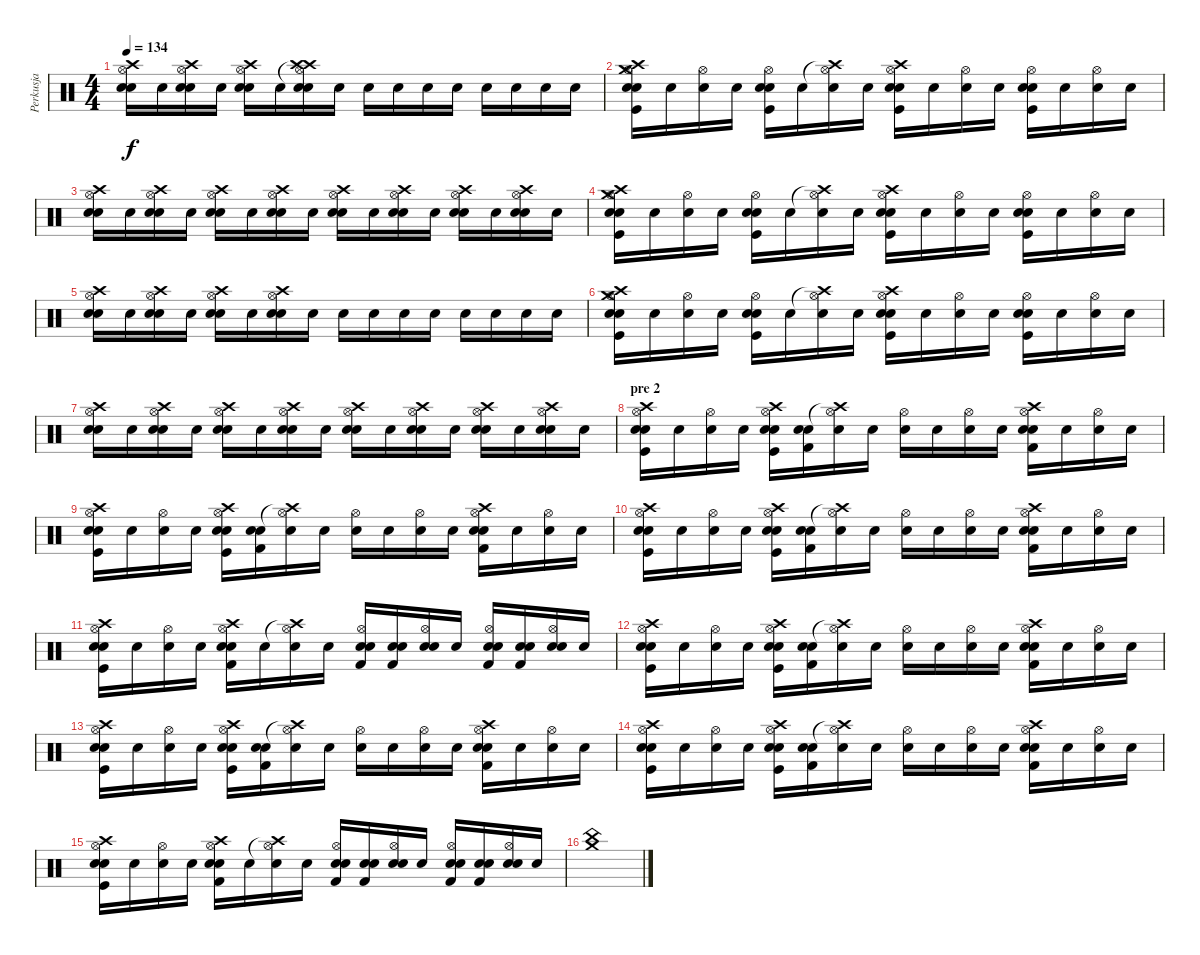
\track ("Perkusja" "Perkusja") {instrument percussion}
\staff {score}
\articulation defaults
\ts (4 4)
\tempo 134
\clef neutral
\ks c
("Crash high (hit)" "Electric Snare (hit)" "Hi-Hat (open)" "Snare (hit)").16{dy f} "Snare (hit)".16 ("Crash high (hit)" "Electric Snare (hit)" "Hi-Hat (open)" "Snare (hit)").16 "Snare (hit)".16 ("Crash high (hit)" "Electric Snare (hit)" "Hi-Hat (open)" "Snare (hit)").16 "Snare (hit)".16 ("Crash high (hit)"{t} "Crash high (hit)" "Electric Snare (hit)" "Hi-Hat (open)" "Snare (hit)").16 "Snare (hit)".16 "Snare (hit)".16 "Snare (hit)".16 "Snare (hit)".16 "Snare (hit)".16 "Snare (hit)".16 "Snare (hit)".16 "Snare (hit)".16 "Snare (hit)".16 |
("Crash high (hit)" "Crash medium (hit)" "Electric Snare (hit)" "Kick (hit)" "Hi-Hat (open)" "Snare (hit)").16 "Snare (hit)".16 ("Hi-Hat (open)" "Snare (hit)").16 "Snare (hit)".16 ("Electric Snare (hit)" "Kick (hit)" "Hi-Hat (open)" "Snare (hit)").16 "Snare (hit)".16 ("Crash high (hit)"{t} "Hi-Hat (open)" "Snare (hit)").16 "Snare (hit)".16 ("Crash high (hit)" "Electric Snare (hit)" "Kick (hit)" "Hi-Hat (open)" "Snare (hit)").16 "Snare (hit)".16 ("Hi-Hat (open)" "Snare (hit)").16 "Snare (hit)".16 ("Electric Snare (hit)" "Kick (hit)" "Hi-Hat (open)" "Snare (hit)").16 "Snare (hit)".16 ("Hi-Hat (open)" "Snare (hit)").16 "Snare (hit)".16 |
("Crash high (hit)" "Electric Snare (hit)" "Hi-Hat (open)" "Snare (hit)").16 "Snare (hit)".16 ("Crash high (hit)" "Electric Snare (hit)" "Hi-Hat (open)" "Snare (hit)").16 "Snare (hit)".16 ("Crash high (hit)" "Electric Snare (hit)" "Hi-Hat (open)" "Snare (hit)").16 "Snare (hit)".16 ("Crash high (hit)" "Electric Snare (hit)" "Hi-Hat (open)" "Snare (hit)").16 "Snare (hit)".16 ("Crash high (hit)" "Electric Snare (hit)" "Hi-Hat (open)" "Snare (hit)").16 "Snare (hit)".16 ("Crash high (hit)" "Electric Snare (hit)" "Hi-Hat (open)" "Snare (hit)").16 "Snare (hit)".16 ("Crash high (hit)" "Electric Snare (hit)" "Hi-Hat (open)" "Snare (hit)").16 "Snare (hit)".16 ("Crash high (hit)" "Electric Snare (hit)" "Hi-Hat (open)" "Snare (hit)").16 "Snare (hit)".16 |
("Crash high (hit)" "Crash medium (hit)" "Electric Snare (hit)" "Kick (hit)" "Hi-Hat (open)" "Snare (hit)").16 "Snare (hit)".16 ("Hi-Hat (open)" "Snare (hit)").16 "Snare (hit)".16 ("Electric Snare (hit)" "Kick (hit)" "Hi-Hat (open)" "Snare (hit)").16 "Snare (hit)".16 ("Crash high (hit)"{t} "Hi-Hat (open)" "Snare (hit)").16 "Snare (hit)".16 ("Crash high (hit)" "Electric Snare (hit)" "Kick (hit)" "Hi-Hat (open)" "Snare (hit)").16 "Snare (hit)".16 ("Hi-Hat (open)" "Snare (hit)").16 "Snare (hit)".16 ("Electric Snare (hit)" "Kick (hit)" "Hi-Hat (open)" "Snare (hit)").16 "Snare (hit)".16 ("Hi-Hat (open)" "Snare (hit)").16 "Snare (hit)".16 |
("Crash high (hit)" "Electric Snare (hit)" "Hi-Hat (open)" "Snare (hit)").16 "Snare (hit)".16 ("Crash high (hit)" "Electric Snare (hit)" "Hi-Hat (open)" "Snare (hit)").16 "Snare (hit)".16 ("Crash high (hit)" "Electric Snare (hit)" "Hi-Hat (open)" "Snare (hit)").16 "Snare (hit)".16 ("Crash high (hit)" "Electric Snare (hit)" "Hi-Hat (open)" "Snare (hit)").16 "Snare (hit)".16 "Snare (hit)".16 "Snare (hit)".16 "Snare (hit)".16 "Snare (hit)".16 "Snare (hit)".16 "Snare (hit)".16 "Snare (hit)".16 "Snare (hit)".16 |
("Crash high (hit)" "Crash medium (hit)" "Electric Snare (hit)" "Kick (hit)" "Hi-Hat (open)" "Snare (hit)").16 "Snare (hit)".16 ("Hi-Hat (open)" "Snare (hit)").16 "Snare (hit)".16 ("Electric Snare (hit)" "Kick (hit)" "Hi-Hat (open)" "Snare (hit)").16 "Snare (hit)".16 ("Crash high (hit)"{t} "Hi-Hat (open)" "Snare (hit)").16 "Snare (hit)".16 ("Crash high (hit)" "Electric Snare (hit)" "Kick (hit)" "Hi-Hat (open)" "Snare (hit)").16 "Snare (hit)".16 ("Hi-Hat (open)" "Snare (hit)").16 "Snare (hit)".16 ("Electric Snare (hit)" "Kick (hit)" "Hi-Hat (open)" "Snare (hit)").16 "Snare (hit)".16 ("Hi-Hat (open)" "Snare (hit)").16 "Snare (hit)".16 |
("Crash high (hit)" "Electric Snare (hit)" "Hi-Hat (open)" "Snare (hit)").16 "Snare (hit)".16 ("Crash high (hit)" "Electric Snare (hit)" "Hi-Hat (open)" "Snare (hit)").16 "Snare (hit)".16 ("Crash high (hit)" "Electric Snare (hit)" "Hi-Hat (open)" "Snare (hit)").16 "Snare (hit)".16 ("Crash high (hit)" "Electric Snare (hit)" "Hi-Hat (open)" "Snare (hit)").16 "Snare (hit)".16 ("Crash high (hit)" "Electric Snare (hit)" "Hi-Hat (open)" "Snare (hit)").16 "Snare (hit)".16 ("Crash high (hit)" "Electric Snare (hit)" "Hi-Hat (open)" "Snare (hit)").16 "Snare (hit)".16 ("Crash high (hit)" "Electric Snare (hit)" "Hi-Hat (open)" "Snare (hit)").16 "Snare (hit)".16 ("Crash high (hit)" "Electric Snare (hit)" "Hi-Hat (open)" "Snare (hit)").16 "Snare (hit)".16 |
\section ("" "pre 2")
("Crash high (hit)" "Electric Snare (hit)" "Kick (hit)" "Hi-Hat (open)" "Snare (hit)").16 "Snare (hit)".16 ("Hi-Hat (open)" "Snare (hit)").16 "Snare (hit)".16 ("Crash high (hit)" "Electric Snare (hit)" "Kick (hit)" "Hi-Hat (open)" "Snare (hit)").16 ("Electric Snare (hit)" "Kick (hit) 2" "Snare (hit)").16 ("Crash high (hit)"{t} "Hi-Hat (open)" "Snare (hit)").16 "Snare (hit)".16 ("Hi-Hat (open)" "Snare (hit)").16 "Snare (hit)".16 ("Hi-Hat (open)" "Snare (hit)").16 "Snare (hit)".16 ("Crash high (hit)" "Electric Snare (hit)" "Kick (hit) 2" "Hi-Hat (open)" "Snare (hit)").16 "Snare (hit)".16 ("Hi-Hat (open)" "Snare (hit)").16 "Snare (hit)".16 |
("Crash high (hit)" "Electric Snare (hit)" "Kick (hit)" "Hi-Hat (open)" "Snare (hit)").16 "Snare (hit)".16 ("Hi-Hat (open)" "Snare (hit)").16 "Snare (hit)".16 ("Crash high (hit)" "Electric Snare (hit)" "Kick (hit)" "Hi-Hat (open)" "Snare (hit)").16 ("Electric Snare (hit)" "Kick (hit) 2" "Snare (hit)").16 ("Crash high (hit)"{t} "Hi-Hat (open)" "Snare (hit)").16 "Snare (hit)".16 ("Hi-Hat (open)" "Snare (hit)").16 "Snare (hit)".16 ("Hi-Hat (open)" "Snare (hit)").16 "Snare (hit)".16 ("Crash high (hit)" "Electric Snare (hit)" "Kick (hit) 2" "Hi-Hat (open)" "Snare (hit)").16 "Snare (hit)".16 ("Hi-Hat (open)" "Snare (hit)").16 "Snare (hit)".16 |
("Crash high (hit)" "Electric Snare (hit)" "Kick (hit)" "Hi-Hat (open)" "Snare (hit)").16 "Snare (hit)".16 ("Hi-Hat (open)" "Snare (hit)").16 "Snare (hit)".16 ("Crash high (hit)" "Electric Snare (hit)" "Kick (hit)" "Hi-Hat (open)" "Snare (hit)").16 ("Electric Snare (hit)" "Kick (hit) 2" "Snare (hit)").16 ("Crash high (hit)"{t} "Hi-Hat (open)" "Snare (hit)").16 "Snare (hit)".16 ("Hi-Hat (open)" "Snare (hit)").16 "Snare (hit)".16 ("Hi-Hat (open)" "Snare (hit)").16 "Snare (hit)".16 ("Crash high (hit)" "Electric Snare (hit)" "Kick (hit) 2" "Hi-Hat (open)" "Snare (hit)").16 "Snare (hit)".16 ("Hi-Hat (open)" "Snare (hit)").16 "Snare (hit)".16 |
("Crash high (hit)" "Electric Snare (hit)" "Kick (hit)" "Hi-Hat (open)" "Snare (hit)").16 "Snare (hit)".16 ("Hi-Hat (open)" "Snare (hit)").16 "Snare (hit)".16 ("Crash high (hit)" "Electric Snare (hit)" "Kick (hit) 2" "Hi-Hat (open)" "Snare (hit)").16 "Snare (hit)".16 ("Crash high (hit)"{t} "Hi-Hat (open)" "Snare (hit)").16 "Snare (hit)".16 ("Electric Snare (hit)" "Kick (hit) 2" "Hi-Hat (open)" "Snare (hit)").16 ("Electric Snare (hit)" "Kick (hit) 2" "Snare (hit)").16 ("Electric Snare (hit)" "Hi-Hat (open)" "Snare (hit)").16 "Snare (hit)".16 ("Electric Snare (hit)" "Kick (hit) 2" "Hi-Hat (open)" "Snare (hit)").16 ("Electric Snare (hit)" "Kick (hit) 2" "Snare (hit)").16 ("Electric Snare (hit)" "Hi-Hat (open)" "Snare (hit)").16 "Snare (hit)".16 |
("Crash high (hit)" "Electric Snare (hit)" "Kick (hit)" "Hi-Hat (open)" "Snare (hit)").16 "Snare (hit)".16 ("Hi-Hat (open)" "Snare (hit)").16 "Snare (hit)".16 ("Crash high (hit)" "Electric Snare (hit)" "Kick (hit)" "Hi-Hat (open)" "Snare (hit)").16 ("Electric Snare (hit)" "Kick (hit) 2" "Snare (hit)").16 ("Crash high (hit)"{t} "Hi-Hat (open)" "Snare (hit)").16 "Snare (hit)".16 ("Hi-Hat (open)" "Snare (hit)").16 "Snare (hit)".16 ("Hi-Hat (open)" "Snare (hit)").16 "Snare (hit)".16 ("Crash high (hit)" "Electric Snare (hit)" "Kick (hit) 2" "Hi-Hat (open)" "Snare (hit)").16 "Snare (hit)".16 ("Hi-Hat (open)" "Snare (hit)").16 "Snare (hit)".16 |
("Crash high (hit)" "Electric Snare (hit)" "Kick (hit)" "Hi-Hat (open)" "Snare (hit)").16 "Snare (hit)".16 ("Hi-Hat (open)" "Snare (hit)").16 "Snare (hit)".16 ("Crash high (hit)" "Electric Snare (hit)" "Kick (hit)" "Hi-Hat (open)" "Snare (hit)").16 ("Electric Snare (hit)" "Kick (hit) 2" "Snare (hit)").16 ("Crash high (hit)"{t} "Hi-Hat (open)" "Snare (hit)").16 "Snare (hit)".16 ("Hi-Hat (open)" "Snare (hit)").16 "Snare (hit)".16 ("Hi-Hat (open)" "Snare (hit)").16 "Snare (hit)".16 ("Crash high (hit)" "Electric Snare (hit)" "Kick (hit) 2" "Hi-Hat (open)" "Snare (hit)").16 "Snare (hit)".16 ("Hi-Hat (open)" "Snare (hit)").16 "Snare (hit)".16 |
("Crash high (hit)" "Electric Snare (hit)" "Kick (hit)" "Hi-Hat (open)" "Snare (hit)").16 "Snare (hit)".16 ("Hi-Hat (open)" "Snare (hit)").16 "Snare (hit)".16 ("Crash high (hit)" "Electric Snare (hit)" "Kick (hit)" "Hi-Hat (open)" "Snare (hit)").16 ("Electric Snare (hit)" "Kick (hit) 2" "Snare (hit)").16 ("Crash high (hit)"{t} "Hi-Hat (open)" "Snare (hit)").16 "Snare (hit)".16 ("Hi-Hat (open)" "Snare (hit)").16 "Snare (hit)".16 ("Hi-Hat (open)" "Snare (hit)").16 "Snare (hit)".16 ("Crash high (hit)" "Electric Snare (hit)" "Kick (hit) 2" "Hi-Hat (open)" "Snare (hit)").16 "Snare (hit)".16 ("Hi-Hat (open)" "Snare (hit)").16 "Snare (hit)".16 |
("Crash high (hit)" "Electric Snare (hit)" "Kick (hit)" "Hi-Hat (open)" "Snare (hit)").16 "Snare (hit)".16 ("Hi-Hat (open)" "Snare (hit)").16 "Snare (hit)".16 ("Crash high (hit)" "Electric Snare (hit)" "Kick (hit) 2" "Hi-Hat (open)" "Snare (hit)").16 "Snare (hit)".16 ("Crash high (hit)"{t} "Hi-Hat (open)" "Snare (hit)").16 "Snare (hit)".16 ("Electric Snare (hit)" "Kick (hit) 2" "Hi-Hat (open)" "Snare (hit)").16 ("Electric Snare (hit)" "Kick (hit) 2" "Snare (hit)").16 ("Electric Snare (hit)" "Hi-Hat (open)" "Snare (hit)").16 "Snare (hit)".16 ("Electric Snare (hit)" "Kick (hit) 2" "Hi-Hat (open)" "Snare (hit)").16 ("Electric Snare (hit)" "Kick (hit) 2" "Snare (hit)").16 ("Electric Snare (hit)" "Hi-Hat (open)" "Snare (hit)").16 "Snare (hit)".16 |
("Crash medium (hit)" "China (hit)").1
